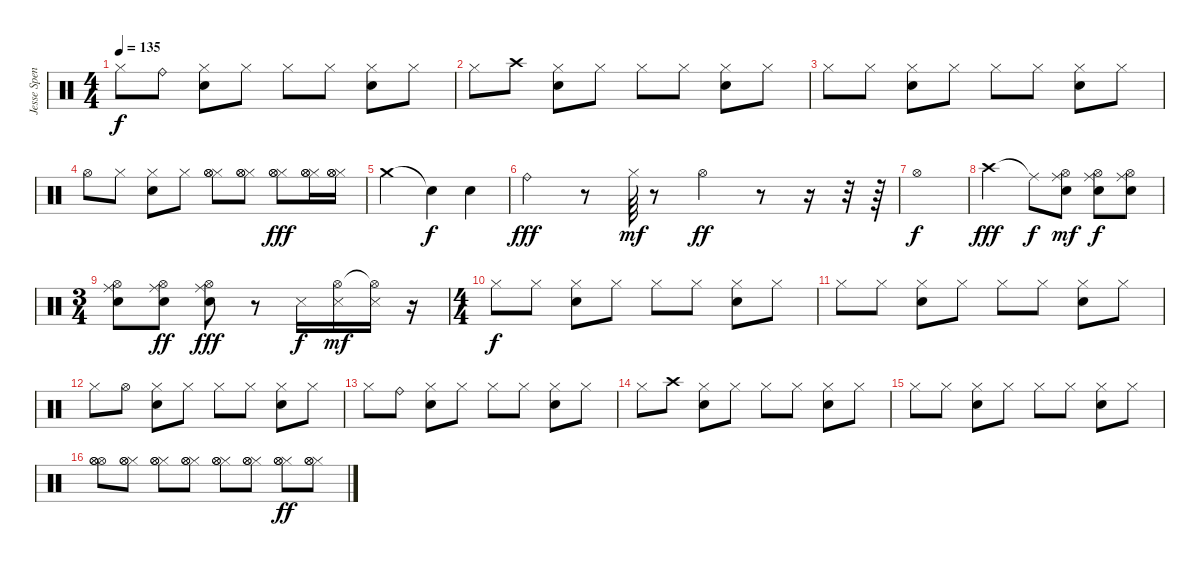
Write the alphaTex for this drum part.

\track ("Jesse Spence" "Jesse Spen") {instrument percussion}
\staff {score}
\articulation defaults
\ts (4 4)
\tempo 135
\clef neutral
\ks c "Hi-Hat (closed)".8{dy f} "Ride (bell)".8
("Hi-Hat (closed)" "Snare (hit) 2").8 "Hi-Hat (closed)".8 "Hi-Hat (closed)".8 "Hi-Hat (closed)".8 ("Hi-Hat (closed)" "Snare (hit) 2").8 "Hi-Hat (closed)".8 |
"Hi-Hat (closed)".8 "Crash high (hit)".8 ("Hi-Hat (closed)" "Snare (hit) 2").8 "Hi-Hat (closed)".8 "Hi-Hat (closed)".8 "Hi-Hat (closed)".8 ("Hi-Hat (closed)" "Snare (hit) 2").8 "Hi-Hat (closed)".8 |
"Hi-Hat (closed)".8 "Hi-Hat (closed)".8 ("Hi-Hat (closed)" "Snare (hit) 2").8 "Hi-Hat (closed)".8 "Hi-Hat (closed)".8 "Hi-Hat (closed)".8 ("Hi-Hat (closed)" "Snare (hit) 2").8 "Hi-Hat (closed)".8 |
"Hi-Hat (open)".8 "Hi-Hat (closed)".8 ("Hi-Hat (closed)" "Snare (hit) 2").8 "Hi-Hat (closed)".8 ("Hi-Hat (closed)" "Hi-Hat (open)" "Hi-Hat (open)").8 ("Hi-Hat (closed)" "Hi-Hat (open)" "Hi-Hat (open)").8 ("Hi-Hat (closed)" "Hi-Hat (open)" "Hi-Hat (open)").8{dy fff} ("Hi-Hat (closed)" "Hi-Hat (open)" "Hi-Hat (open)").16 ("Hi-Hat (closed)" "Hi-Hat (open)" "Hi-Hat (open)").16 |
"Crash medium (hit)".2 "Snare (hit)"{t}.4{dy f} "Snare (hit) 2".4 |
"Ride (bell)".4{dy fff} r.8 "Hi-Hat (closed)".64{dy mf} r.8 "Hi-Hat (open)".4{dy ff} r.8 r.16 r.32 r.64 |
"Hi-Hat (open)".1{dy f} |
"Crash high (hit)".2{dy fff} "Ride (middle)"{t}.8{dy f} ("Snare (hit) 2" "Ride (middle)" "Hi-Hat (open)").8{dy mf} ("Snare (hit) 2" "Ride (middle)" "Hi-Hat (open)").8{dy f} ("Snare (hit) 2" "Ride (middle)" "Hi-Hat (open)").8 |
\ts (3 4)
("Snare (hit) 2" "Ride (middle)" "Hi-Hat (open)").8 ("Snare (hit) 2" "Ride (middle)" "Hi-Hat (open)").8{dy ff} ("Snare (hit) 2" "Ride (middle)" "Hi-Hat (open)").8{dy fff} r.8 "Snare (side stick) 3".16{dy f} ("Snare (side stick) 3" "Hi-Hat (open)").16{dy mf} ("Snare (side stick) 3" "Hi-Hat (open)"{t}).16 r.16 |
\ts (4 4)
"Hi-Hat (closed)".8{dy f} "Hi-Hat (closed)".8 ("Hi-Hat (closed)" "Snare (hit) 2").8 "Hi-Hat (closed)".8 "Hi-Hat (closed)".8 "Hi-Hat (closed)".8 ("Hi-Hat (closed)" "Snare (hit) 2").8 "Hi-Hat (closed)".8 |
"Hi-Hat (closed)".8 "Hi-Hat (closed)".8 ("Hi-Hat (closed)" "Snare (hit) 2").8 "Hi-Hat (closed)".8 "Hi-Hat (closed)".8 "Hi-Hat (closed)".8 ("Hi-Hat (closed)" "Snare (hit) 2").8 "Hi-Hat (closed)".8 |
"Hi-Hat (closed)".8 "Hi-Hat (open)".8 ("Hi-Hat (closed)" "Snare (hit) 2").8 "Hi-Hat (closed)".8 "Hi-Hat (closed)".8 "Hi-Hat (closed)".8 ("Hi-Hat (closed)" "Snare (hit) 2").8 "Hi-Hat (closed)".8 |
"Hi-Hat (closed)".8 "Ride (bell)".8 ("Hi-Hat (closed)" "Snare (hit) 2").8 "Hi-Hat (closed)".8 "Hi-Hat (closed)".8 "Hi-Hat (closed)".8 ("Hi-Hat (closed)" "Snare (hit) 2").8 "Hi-Hat (closed)".8 |
"Hi-Hat (closed)".8 "Crash high (hit)".8 ("Hi-Hat (closed)" "Snare (hit) 2").8 "Hi-Hat (closed)".8 "Hi-Hat (closed)".8 "Hi-Hat (closed)".8 ("Hi-Hat (closed)" "Snare (hit) 2").8 "Hi-Hat (closed)".8 |
"Hi-Hat (closed)".8 "Hi-Hat (closed)".8 ("Hi-Hat (closed)" "Snare (hit) 2").8 "Hi-Hat (closed)".8 "Hi-Hat (closed)".8 "Hi-Hat (closed)".8 ("Hi-Hat (closed)" "Snare (hit) 2").8 "Hi-Hat (closed)".8 |
("Hi-Hat (open)" "Hi-Hat (open)" "Hi-Hat (open)").8 ("Hi-Hat (closed)" "Hi-Hat (open)" "Hi-Hat (open)").8 ("Hi-Hat (closed)" "Hi-Hat (open)" "Hi-Hat (open)").8 ("Hi-Hat (closed)" "Hi-Hat (open)" "Hi-Hat (open)").8 ("Hi-Hat (closed)" "Hi-Hat (open)" "Hi-Hat (open)").8 ("Hi-Hat (closed)" "Hi-Hat (open)" "Hi-Hat (open)").8 ("Hi-Hat (closed)" "Hi-Hat (open)" "Hi-Hat (open)").8{dy ff} ("Hi-Hat (closed)" "Hi-Hat (open)" "Hi-Hat (open)").8
